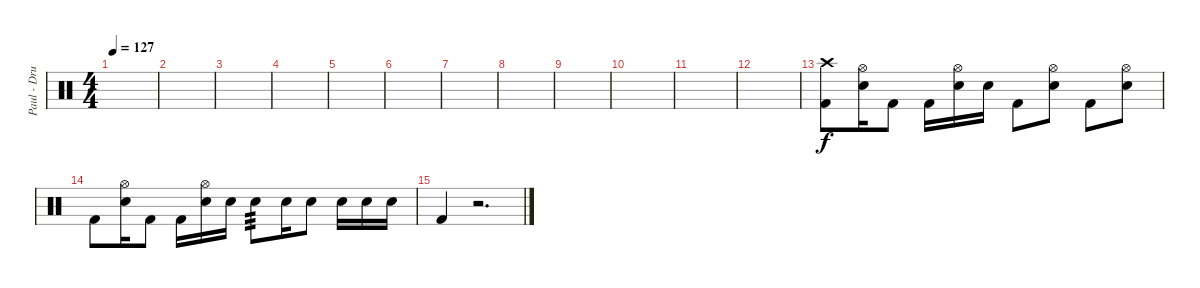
\track ("Paul - Drums" "Paul - Dru") {instrument percussion}
\staff {score}
\articulation defaults
\ts (4 4)
\tempo 127
\clef neutral
\ks c
|
|
|
|
|
|
|
|
|
|
|
|
("Crash high (hit)" "Kick (hit) 2").8 ("Hi-Hat (open)" "Electric Snare (hit)").16 "Kick (hit) 2".8 "Kick (hit) 2".16 ("Hi-Hat (open)" "Electric Snare (hit)").16 "Electric Snare (hit)".16 "Kick (hit) 2".8 ("Hi-Hat (open)" "Electric Snare (hit)").8 "Kick (hit) 2".8 ("Hi-Hat (open)" "Electric Snare (hit)").8 |
"Kick (hit) 2".8 ("Hi-Hat (open)" "Electric Snare (hit)").16 "Kick (hit) 2".8 "Kick (hit) 2".16 ("Hi-Hat (open)" "Electric Snare (hit)").16 "Electric Snare (hit)".16 "Electric Snare (hit)".8{tp 3} "Electric Snare (hit)".16 "Electric Snare (hit)".8 "Electric Snare (hit)".16 "Electric Snare (hit)".16 "Electric Snare (hit)".16 |
"Kick (hit) 2".4 r.2{d}
